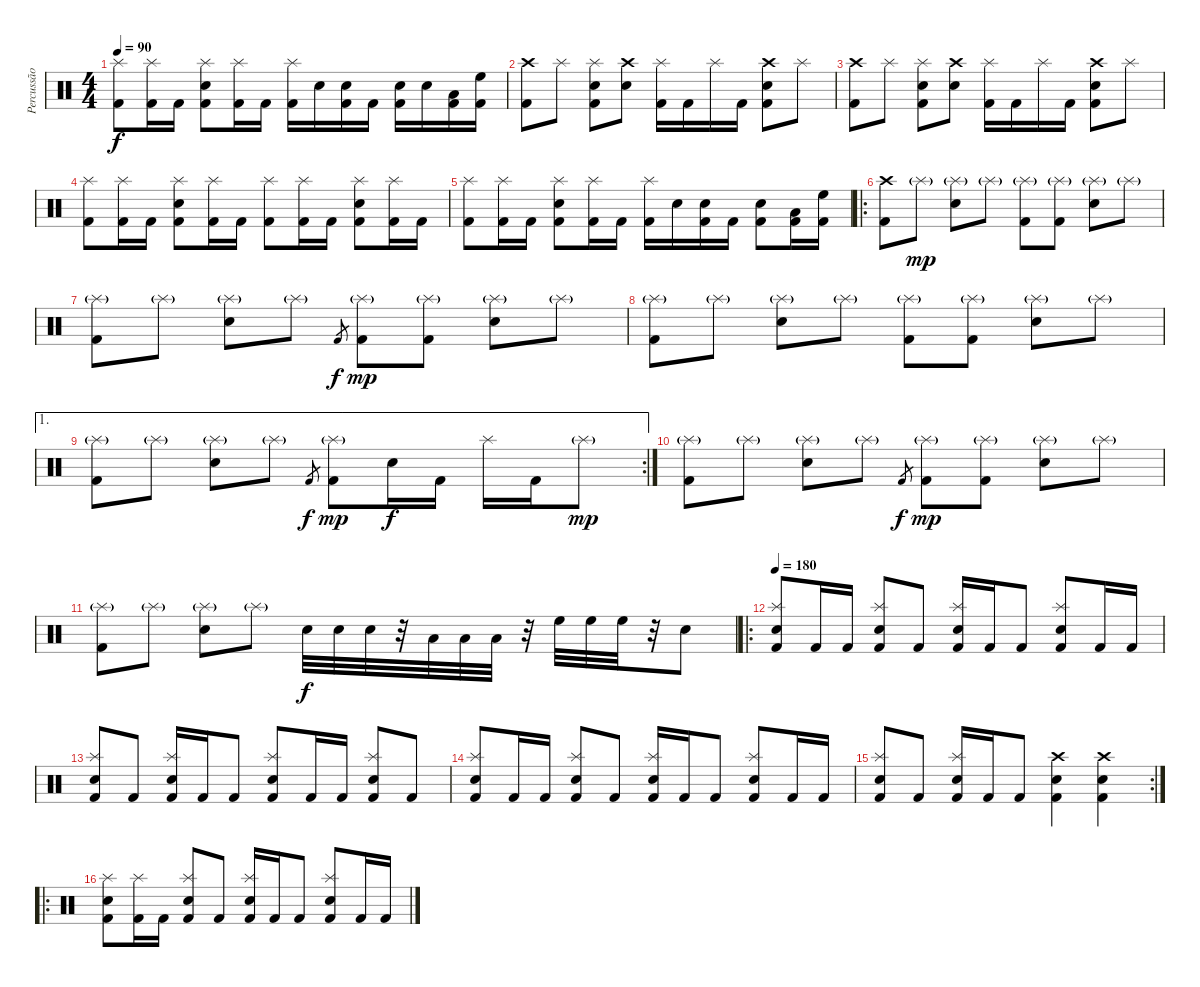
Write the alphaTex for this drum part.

\track ("Percussão" "Percussão") {instrument percussion}
\staff {score}
\articulation defaults
\ts (4 4)
\tempo 90
\clef neutral
\ks c
("Kick (hit) 2" "Splash (hit)").8{dy f} ("Kick (hit) 2" "Splash (hit)").16 "Kick (hit) 2".16 ("Kick (hit) 2" "Snare (hit) 2" "Splash (hit)").8 ("Kick (hit) 2" "Splash (hit)").16 "Kick (hit) 2".16 ("Kick (hit) 2" "Splash (hit)").16 "Snare (hit) 2".16 ("Kick (hit) 2" "Snare (hit) 2").16 "Kick (hit) 2".16 ("Kick (hit) 2" "Snare (hit) 2").16 "Snare (hit) 2".16 ("Kick (hit) 2" "Low Tom (hit)").16 ("Kick (hit) 2" "High Floor Tom (hit)").16 |
("Kick (hit) 2" "Crash high (hit)").8 "Splash (hit)".8 ("Kick (hit) 2" "Snare (hit) 2" "Splash (hit)").8 ("Snare (hit) 2" "Crash high (hit)").8 ("Kick (hit) 2" "Splash (hit)").16 "Kick (hit) 2".16 "Splash (hit)".16 "Kick (hit) 2".16 ("Kick (hit) 2" "Snare (hit) 2" "Crash high (hit)").8 "Splash (hit)".8 |
("Kick (hit) 2" "Crash high (hit)").8 "Splash (hit)".8 ("Kick (hit) 2" "Snare (hit) 2" "Splash (hit)").8 ("Snare (hit) 2" "Crash high (hit)").8 ("Kick (hit) 2" "Splash (hit)").16 "Kick (hit) 2".16 "Splash (hit)".16 "Kick (hit) 2".16 ("Kick (hit) 2" "Snare (hit) 2" "Crash high (hit)").8 "Splash (hit)".8 |
("Kick (hit) 2" "Splash (hit)").8 ("Kick (hit) 2" "Splash (hit)").16 "Kick (hit) 2".16 ("Kick (hit) 2" "Snare (hit) 2" "Splash (hit)").8 ("Kick (hit) 2" "Splash (hit)").16 "Kick (hit) 2".16 ("Kick (hit) 2" "Splash (hit)").8 ("Kick (hit) 2" "Splash (hit)").16 "Kick (hit) 2".16 ("Kick (hit) 2" "Snare (hit) 2" "Splash (hit)").8 ("Kick (hit) 2" "Splash (hit)").16 "Kick (hit) 2".16 |
("Kick (hit) 2" "Splash (hit)").8 ("Kick (hit) 2" "Splash (hit)").16 "Kick (hit) 2".16 ("Kick (hit) 2" "Snare (hit) 2" "Splash (hit)").8 ("Kick (hit) 2" "Splash (hit)").16 "Kick (hit) 2".16 ("Kick (hit) 2" "Splash (hit)").16 "Snare (hit) 2".16 ("Kick (hit) 2" "Snare (hit) 2").16 "Kick (hit) 2".16 ("Kick (hit) 2" "Snare (hit) 2").8 ("Kick (hit) 2" "Low Tom (hit)").16 ("Kick (hit) 2" "High Floor Tom (hit)").16 |
\ro
("Kick (hit) 2" "Crash high (hit)").8 "Splash (hit)"{g}.8{dy mp} ("Snare (hit) 2" "Splash (hit)"{g}).8 "Splash (hit)"{g}.8 ("Kick (hit) 2" "Splash (hit)"{g}).8 ("Kick (hit) 2" "Splash (hit)"{g}).8 ("Snare (hit) 2" "Splash (hit)"{g}).8 "Splash (hit)"{g}.8 |
("Kick (hit) 2" "Splash (hit)"{g}).8 "Splash (hit)"{g}.8 ("Snare (hit) 2" "Splash (hit)"{g}).8 "Splash (hit)"{g}.8 "Kick (hit) 2".8{gr dy f} ("Kick (hit) 2" "Splash (hit)"{g}).8{dy mp} ("Kick (hit) 2" "Splash (hit)"{g}).8 ("Snare (hit) 2" "Splash (hit)"{g}).8 "Splash (hit)"{g}.8 |
("Kick (hit) 2" "Splash (hit)"{g}).8 "Splash (hit)"{g}.8 ("Snare (hit) 2" "Splash (hit)"{g}).8 "Splash (hit)"{g}.8 ("Kick (hit) 2" "Splash (hit)"{g}).8 ("Kick (hit) 2" "Splash (hit)"{g}).8 ("Snare (hit) 2" "Splash (hit)"{g}).8 "Splash (hit)"{g}.8 |
\ae 1
\rc 2
("Kick (hit) 2" "Splash (hit)"{g}).8 "Splash (hit)"{g}.8 ("Snare (hit) 2" "Splash (hit)"{g}).8 "Splash (hit)"{g}.8 "Kick (hit) 2".8{gr dy f} ("Kick (hit) 2" "Splash (hit)"{g}).8{dy mp} "Snare (hit) 2".16{dy f} "Kick (hit) 2".16 "Splash (hit)".16 "Kick (hit) 2".16 "Splash (hit)"{g}.8{dy mp} |
("Kick (hit) 2" "Splash (hit)"{g}).8 "Splash (hit)"{g}.8 ("Snare (hit) 2" "Splash (hit)"{g}).8 "Splash (hit)"{g}.8 "Kick (hit) 2".8{gr dy f} ("Kick (hit) 2" "Splash (hit)"{g}).8{dy mp} ("Kick (hit) 2" "Splash (hit)"{g}).8 ("Snare (hit) 2" "Splash (hit)"{g}).8 "Splash (hit)"{g}.8 |
("Kick (hit) 2" "Splash (hit)"{g}).8 "Splash (hit)"{g}.8 ("Snare (hit) 2" "Splash (hit)"{g}).8 "Splash (hit)"{g}.8 "Snare (hit) 2".32{dy f} "Snare (hit) 2".32 "Snare (hit) 2".32 r.32 "Low Tom (hit)".32 "Low Tom (hit)".32 "Low Tom (hit)".32 r.32 "High Floor Tom (hit)".32 "High Floor Tom (hit)".32 "High Floor Tom (hit)".32 r.32 "Snare (hit) 2".8 |
\ro
\tempo 180
("Kick (hit) 2" "Snare (hit) 2" "Splash (hit)").8 "Kick (hit) 2".16 "Kick (hit) 2".16 ("Kick (hit) 2" "Snare (hit) 2" "Splash (hit)").8 "Kick (hit) 2".8 ("Kick (hit) 2" "Snare (hit) 2" "Splash (hit)").16 "Kick (hit) 2".16 "Kick (hit) 2".8 ("Kick (hit) 2" "Snare (hit) 2" "Splash (hit)").8 "Kick (hit) 2".16 "Kick (hit) 2".16 |
("Kick (hit) 2" "Snare (hit) 2" "Splash (hit)").8 "Kick (hit) 2".8 ("Kick (hit) 2" "Snare (hit) 2" "Splash (hit)").16 "Kick (hit) 2".16 "Kick (hit) 2".8 ("Kick (hit) 2" "Snare (hit) 2" "Splash (hit)").8 "Kick (hit) 2".16 "Kick (hit) 2".16 ("Kick (hit) 2" "Snare (hit) 2" "Splash (hit)").8 "Kick (hit) 2".8 |
("Kick (hit) 2" "Snare (hit) 2" "Splash (hit)").8 "Kick (hit) 2".16 "Kick (hit) 2".16 ("Kick (hit) 2" "Snare (hit) 2" "Splash (hit)").8 "Kick (hit) 2".8 ("Kick (hit) 2" "Snare (hit) 2" "Splash (hit)").16 "Kick (hit) 2".16 "Kick (hit) 2".8 ("Kick (hit) 2" "Snare (hit) 2" "Splash (hit)").8 "Kick (hit) 2".16 "Kick (hit) 2".16 |
\rc 2
("Kick (hit) 2" "Snare (hit) 2" "Splash (hit)").8 "Kick (hit) 2".8 ("Kick (hit) 2" "Snare (hit) 2" "Splash (hit)").16 "Kick (hit) 2".16 "Kick (hit) 2".8 ("Kick (hit) 2" "Snare (hit) 2" "Crash high (hit)").4 ("Kick (hit) 2" "Snare (hit) 2" "Crash high (hit)").4 |
\ro
("Kick (hit) 2" "Snare (hit) 2" "Splash (hit)").8 ("Kick (hit) 2" "Splash (hit)").16 "Kick (hit) 2".16 ("Kick (hit) 2" "Snare (hit) 2" "Splash (hit)").8 "Kick (hit) 2".8 ("Kick (hit) 2" "Snare (hit) 2" "Splash (hit)").16 "Kick (hit) 2".16 "Kick (hit) 2".8 ("Kick (hit) 2" "Snare (hit) 2" "Splash (hit)").8 "Kick (hit) 2".16 "Kick (hit) 2".16
